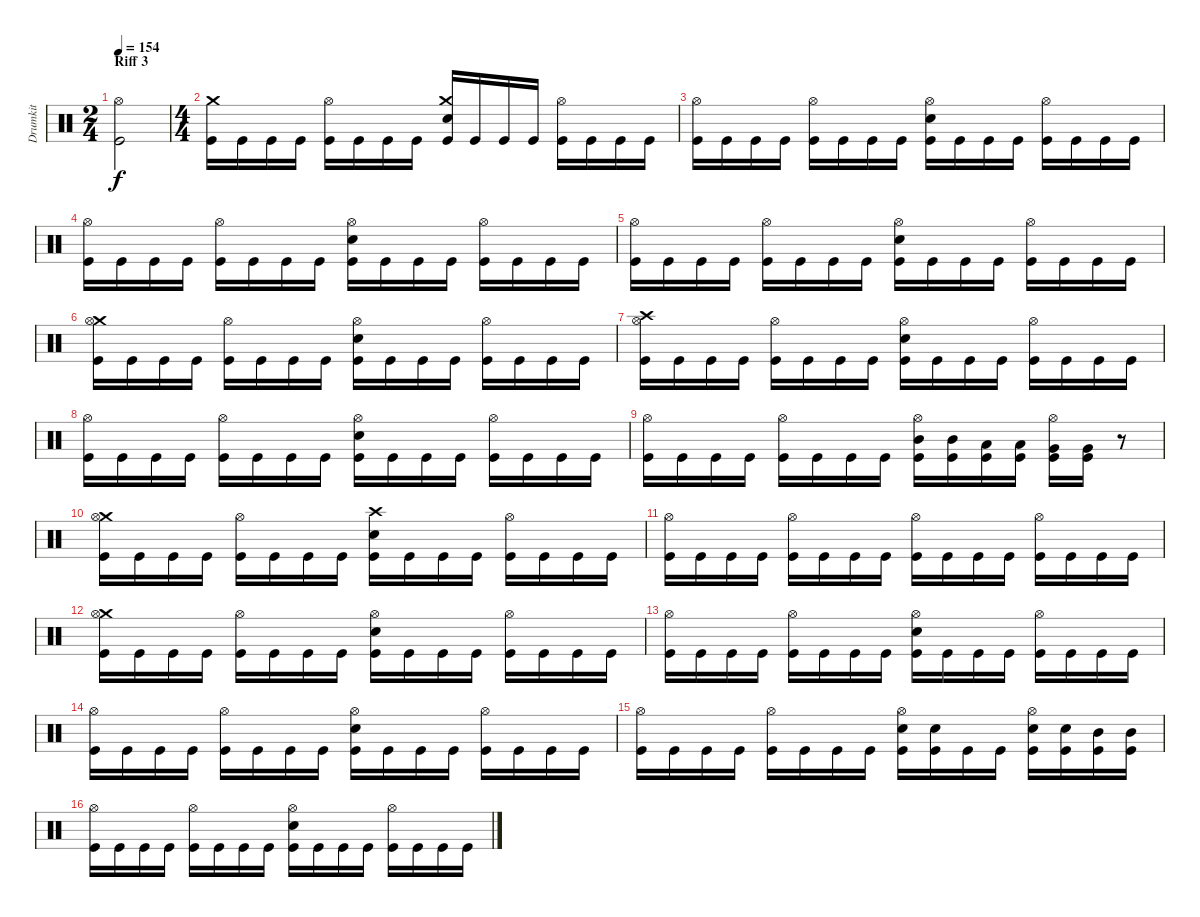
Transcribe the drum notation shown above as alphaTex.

\track ("Drumkit" "Drumkit") {mute instrument percussion}
\staff {score}
\articulation defaults
\ts (2 4)
\section ("" "Riff 3")
\tempo 154
\clef neutral
\ks c
("Hi-Hat (open)" "Kick (hit)").2{dy f} |
\ts (4 4)
("Crash medium (hit)" "Kick (hit)").16 "Kick (hit)".16 "Kick (hit)".16 "Kick (hit)".16 ("Hi-Hat (open)" "Kick (hit)").16 "Kick (hit)".16 "Kick (hit)".16 "Kick (hit)".16 ("Crash medium (hit)" "Snare (hit) 2" "Kick (hit)").16 "Kick (hit)".16 "Kick (hit)".16 "Kick (hit)".16 ("Hi-Hat (open)" "Kick (hit)").16 "Kick (hit)".16 "Kick (hit)".16 "Kick (hit)".16 |
("Hi-Hat (open)" "Kick (hit)").16 "Kick (hit)".16 "Kick (hit)".16 "Kick (hit)".16 ("Hi-Hat (open)" "Kick (hit)").16 "Kick (hit)".16 "Kick (hit)".16 "Kick (hit)".16 ("Hi-Hat (open)" "Snare (hit) 2" "Kick (hit)").16 "Kick (hit)".16 "Kick (hit)".16 "Kick (hit)".16 ("Hi-Hat (open)" "Kick (hit)").16 "Kick (hit)".16 "Kick (hit)".16 "Kick (hit)".16 |
("Hi-Hat (open)" "Kick (hit)").16 "Kick (hit)".16 "Kick (hit)".16 "Kick (hit)".16 ("Hi-Hat (open)" "Kick (hit)").16 "Kick (hit)".16 "Kick (hit)".16 "Kick (hit)".16 ("Hi-Hat (open)" "Snare (hit) 2" "Kick (hit)").16 "Kick (hit)".16 "Kick (hit)".16 "Kick (hit)".16 ("Hi-Hat (open)" "Kick (hit)").16 "Kick (hit)".16 "Kick (hit)".16 "Kick (hit)".16 |
("Hi-Hat (open)" "Kick (hit)").16 "Kick (hit)".16 "Kick (hit)".16 "Kick (hit)".16 ("Hi-Hat (open)" "Kick (hit)").16 "Kick (hit)".16 "Kick (hit)".16 "Kick (hit)".16 ("Hi-Hat (open)" "Snare (hit) 2" "Kick (hit)").16 "Kick (hit)".16 "Kick (hit)".16 "Kick (hit)".16 ("Hi-Hat (open)" "Kick (hit)").16 "Kick (hit)".16 "Kick (hit)".16 "Kick (hit)".16 |
("Crash medium (hit)" "Hi-Hat (open)" "Kick (hit)").16 "Kick (hit)".16 "Kick (hit)".16 "Kick (hit)".16 ("Hi-Hat (open)" "Kick (hit)").16 "Kick (hit)".16 "Kick (hit)".16 "Kick (hit)".16 ("Hi-Hat (open)" "Snare (hit) 2" "Kick (hit)").16 "Kick (hit)".16 "Kick (hit)".16 "Kick (hit)".16 ("Hi-Hat (open)" "Kick (hit)").16 "Kick (hit)".16 "Kick (hit)".16 "Kick (hit)".16 |
("Crash high (hit)" "Hi-Hat (open)" "Kick (hit)").16 "Kick (hit)".16 "Kick (hit)".16 "Kick (hit)".16 ("Hi-Hat (open)" "Kick (hit)").16 "Kick (hit)".16 "Kick (hit)".16 "Kick (hit)".16 ("Hi-Hat (open)" "Snare (hit) 2" "Kick (hit)").16 "Kick (hit)".16 "Kick (hit)".16 "Kick (hit)".16 ("Hi-Hat (open)" "Kick (hit)").16 "Kick (hit)".16 "Kick (hit)".16 "Kick (hit)".16 |
("Hi-Hat (open)" "Kick (hit)").16 "Kick (hit)".16 "Kick (hit)".16 "Kick (hit)".16 ("Hi-Hat (open)" "Kick (hit)").16 "Kick (hit)".16 "Kick (hit)".16 "Kick (hit)".16 ("Hi-Hat (open)" "Snare (hit) 2" "Kick (hit)").16 "Kick (hit)".16 "Kick (hit)".16 "Kick (hit)".16 ("Hi-Hat (open)" "Kick (hit)").16 "Kick (hit)".16 "Kick (hit)".16 "Kick (hit)".16 |
("Hi-Hat (open)" "Kick (hit)").16 "Kick (hit)".16 "Kick (hit)".16 "Kick (hit)".16 ("Hi-Hat (open)" "Kick (hit)").16 "Kick (hit)".16 "Kick (hit)".16 "Kick (hit)".16 ("Hi-Hat (open)" "Mid Tom (hit)" "Kick (hit)").16 ("Mid Tom (hit)" "Kick (hit)").16 ("Low Tom (hit)" "Kick (hit)").16 ("Low Tom (hit)" "Kick (hit)").16 ("Hi-Hat (open)" "Very Low Tom (hit)" "Kick (hit)").16 ("Very Low Tom (hit)" "Kick (hit)").16 r.8 |
("Crash medium (hit)" "Hi-Hat (open)" "Kick (hit)").16 "Kick (hit)".16 "Kick (hit)".16 "Kick (hit)".16 ("Hi-Hat (open)" "Kick (hit)").16 "Kick (hit)".16 "Kick (hit)".16 "Kick (hit)".16 ("Crash high (hit)" "Snare (hit) 2" "Kick (hit)").16 "Kick (hit)".16 "Kick (hit)".16 "Kick (hit)".16 ("Hi-Hat (open)" "Kick (hit)").16 "Kick (hit)".16 "Kick (hit)".16 "Kick (hit)".16 |
("Hi-Hat (open)" "Kick (hit)").16 "Kick (hit)".16 "Kick (hit)".16 "Kick (hit)".16 ("Hi-Hat (open)" "Kick (hit)").16 "Kick (hit)".16 "Kick (hit)".16 "Kick (hit)".16 ("Hi-Hat (open)" "Kick (hit)").16 "Kick (hit)".16 "Kick (hit)".16 "Kick (hit)".16 ("Hi-Hat (open)" "Kick (hit)").16 "Kick (hit)".16 "Kick (hit)".16 "Kick (hit)".16 |
("Crash medium (hit)" "Hi-Hat (open)" "Kick (hit)").16 "Kick (hit)".16 "Kick (hit)".16 "Kick (hit)".16 ("Hi-Hat (open)" "Kick (hit)").16 "Kick (hit)".16 "Kick (hit)".16 "Kick (hit)".16 ("Hi-Hat (open)" "Snare (hit) 2" "Kick (hit)").16 "Kick (hit)".16 "Kick (hit)".16 "Kick (hit)".16 ("Hi-Hat (open)" "Kick (hit)").16 "Kick (hit)".16 "Kick (hit)".16 "Kick (hit)".16 |
("Hi-Hat (open)" "Kick (hit)").16 "Kick (hit)".16 "Kick (hit)".16 "Kick (hit)".16 ("Hi-Hat (open)" "Kick (hit)").16 "Kick (hit)".16 "Kick (hit)".16 "Kick (hit)".16 ("Hi-Hat (open)" "Snare (hit) 2" "Kick (hit)").16 "Kick (hit)".16 "Kick (hit)".16 "Kick (hit)".16 ("Hi-Hat (open)" "Kick (hit)").16 "Kick (hit)".16 "Kick (hit)".16 "Kick (hit)".16 |
("Hi-Hat (open)" "Kick (hit)").16 "Kick (hit)".16 "Kick (hit)".16 "Kick (hit)".16 ("Hi-Hat (open)" "Kick (hit)").16 "Kick (hit)".16 "Kick (hit)".16 "Kick (hit)".16 ("Hi-Hat (open)" "Snare (hit) 2" "Kick (hit)").16 "Kick (hit)".16 "Kick (hit)".16 "Kick (hit)".16 ("Hi-Hat (open)" "Kick (hit)").16 "Kick (hit)".16 "Kick (hit)".16 "Kick (hit)".16 |
("Hi-Hat (open)" "Kick (hit)").16 "Kick (hit)".16 "Kick (hit)".16 "Kick (hit)".16 ("Hi-Hat (open)" "Kick (hit)").16 "Kick (hit)".16 "Kick (hit)".16 "Kick (hit)".16 ("Hi-Hat (open)" "Snare (hit) 2" "Kick (hit)").16 ("Snare (hit) 2" "Kick (hit)").16 "Kick (hit)".16 "Kick (hit)".16 ("Hi-Hat (open)" "Snare (hit) 2" "Kick (hit)").16 ("Snare (hit) 2" "Kick (hit)").16 ("Mid Tom (hit)" "Kick (hit)").16 ("Mid Tom (hit)" "Kick (hit)").16 |
("Hi-Hat (open)" "Kick (hit)").16 "Kick (hit)".16 "Kick (hit)".16 "Kick (hit)".16 ("Hi-Hat (open)" "Kick (hit)").16 "Kick (hit)".16 "Kick (hit)".16 "Kick (hit)".16 ("Hi-Hat (open)" "Snare (hit) 2" "Kick (hit)").16 "Kick (hit)".16 "Kick (hit)".16 "Kick (hit)".16 ("Hi-Hat (open)" "Kick (hit)").16 "Kick (hit)".16 "Kick (hit)".16 "Kick (hit)".16
